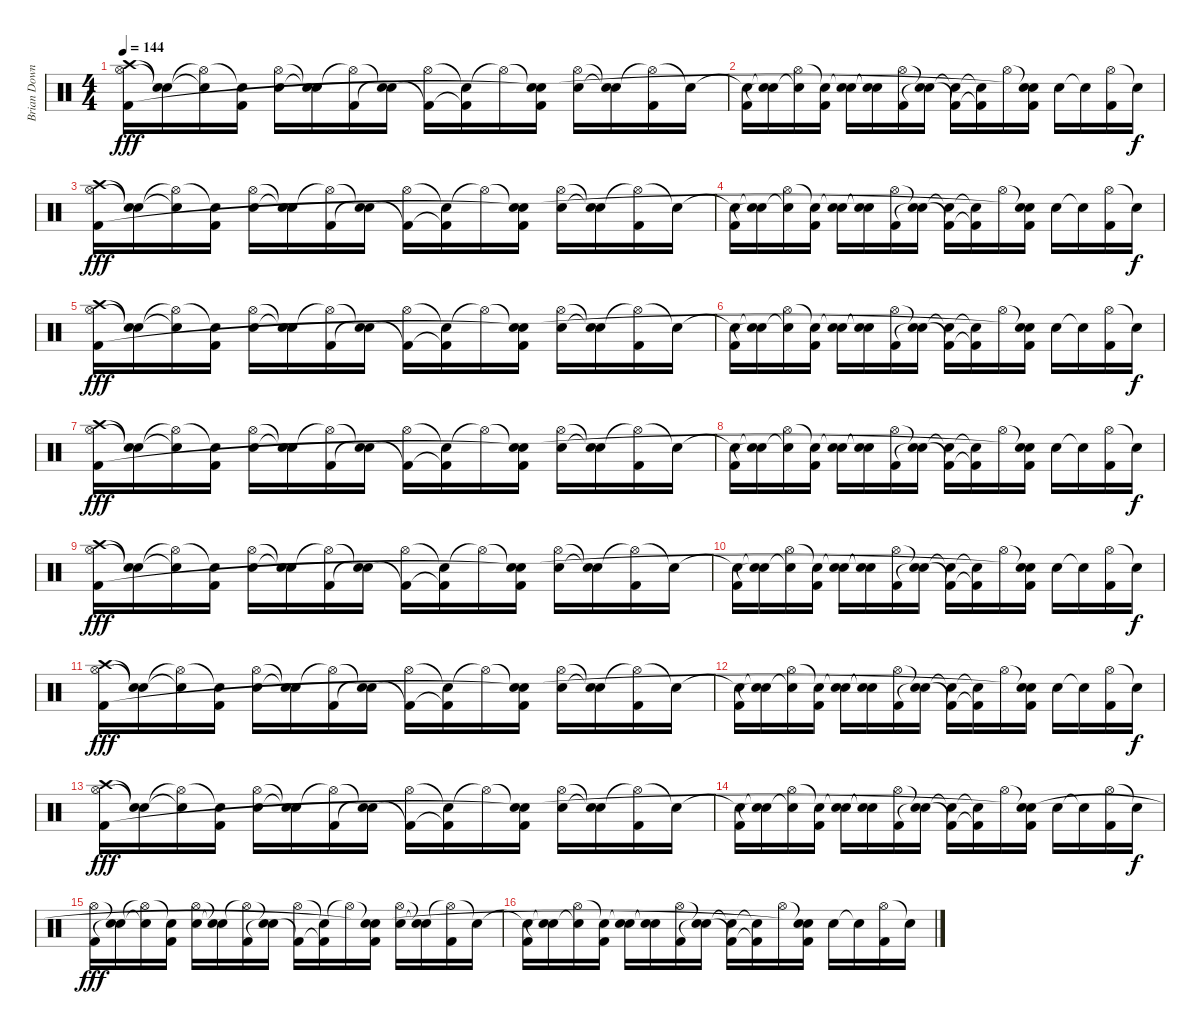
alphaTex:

\track ("Brian Downey" "Brian Down") {instrument percussion}
\staff {score}
\articulation defaults
\ts (4 4)
\tempo 144
\clef neutral
\ks c
("Crash high (hit)" "Hi-Hat (open)" "Kick (hit) 2").16{dy fff} ("Snare (hit)"{t} "Snare (hit)"{t}).16 ("Hi-Hat (open)"{t} "Snare (hit)"{t}).16 ("Snare (hit)"{t} "Kick (hit) 2").16 ("Hi-Hat (open)" "Electric Snare (hit)").16 ("Snare (hit)"{t} "Snare (hit)"{t}).16 ("Hi-Hat (open)"{t} "Kick (hit) 2").16 ("Snare (hit)"{t} "Snare (hit)"{t}).16 ("Hi-Hat (open)" "Kick (hit) 2"{t}).16 ("Snare (hit)"{t} "Kick (hit) 2"{t}).16 "Hi-Hat (open)"{t}.16 ("Snare (hit)"{t} "Kick (hit) 2" "Snare (hit)"{t}).16 ("Hi-Hat (open)" "Electric Snare (hit)").16 ("Snare (hit)"{t} "Snare (hit)"{t}).16 ("Hi-Hat (open)"{t} "Kick (hit) 2").16 "Snare (hit)"{t}.16 |
("Snare (hit)"{t} "Kick (hit) 2").16 ("Snare (hit)"{t} "Snare (hit)"{t}).16 ("Hi-Hat (open)" "Snare (hit)"{t}).16 ("Snare (hit)"{t} "Kick (hit) 2").16 ("Snare (hit)"{t} "Electric Snare (hit)").16 ("Snare (hit)"{t} "Snare (hit)"{t}).16 ("Hi-Hat (open)" "Kick (hit) 2").16 ("Snare (hit)"{t} "Snare (hit)"{t}).16 ("Snare (hit)"{t} "Kick (hit) 2"{t}).16 ("Snare (hit)"{t} "Kick (hit) 2"{t}).16 "Hi-Hat (open)".16 ("Snare (hit)"{t} "Kick (hit) 2" "Snare (hit)"{t}).16 "Electric Snare (hit)".16 "Snare (hit)"{t}.16 ("Hi-Hat (open)" "Kick (hit) 2").16 "Snare (hit)"{t}.16{dy f} |
("Crash high (hit)" "Hi-Hat (open)" "Kick (hit) 2").16{dy fff} ("Snare (hit)"{t} "Snare (hit)"{t}).16 ("Hi-Hat (open)"{t} "Snare (hit)"{t}).16 ("Snare (hit)"{t} "Kick (hit) 2").16 ("Hi-Hat (open)" "Electric Snare (hit)").16 ("Snare (hit)"{t} "Snare (hit)"{t}).16 ("Hi-Hat (open)"{t} "Kick (hit) 2").16 ("Snare (hit)"{t} "Snare (hit)"{t}).16 ("Hi-Hat (open)" "Kick (hit) 2"{t}).16 ("Snare (hit)"{t} "Kick (hit) 2"{t}).16 "Hi-Hat (open)"{t}.16 ("Snare (hit)"{t} "Kick (hit) 2" "Snare (hit)"{t}).16 ("Hi-Hat (open)" "Electric Snare (hit)").16 ("Snare (hit)"{t} "Snare (hit)"{t}).16 ("Hi-Hat (open)"{t} "Kick (hit) 2").16 "Snare (hit)"{t}.16 |
("Snare (hit)"{t} "Kick (hit) 2").16 ("Snare (hit)"{t} "Snare (hit)"{t}).16 ("Hi-Hat (open)" "Snare (hit)"{t}).16 ("Snare (hit)"{t} "Kick (hit) 2").16 ("Snare (hit)"{t} "Electric Snare (hit)").16 ("Snare (hit)"{t} "Snare (hit)"{t}).16 ("Hi-Hat (open)" "Kick (hit) 2").16 ("Snare (hit)"{t} "Snare (hit)"{t}).16 ("Snare (hit)"{t} "Kick (hit) 2"{t}).16 ("Snare (hit)"{t} "Kick (hit) 2"{t}).16 "Hi-Hat (open)".16 ("Snare (hit)"{t} "Kick (hit) 2" "Snare (hit)"{t}).16 "Electric Snare (hit)".16 "Snare (hit)"{t}.16 ("Hi-Hat (open)" "Kick (hit) 2").16 "Snare (hit)"{t}.16{dy f} |
("Crash high (hit)" "Hi-Hat (open)" "Kick (hit) 2").16{dy fff} ("Snare (hit)"{t} "Snare (hit)"{t}).16 ("Hi-Hat (open)"{t} "Snare (hit)"{t}).16 ("Snare (hit)"{t} "Kick (hit) 2").16 ("Hi-Hat (open)" "Electric Snare (hit)").16 ("Snare (hit)"{t} "Snare (hit)"{t}).16 ("Hi-Hat (open)"{t} "Kick (hit) 2").16 ("Snare (hit)"{t} "Snare (hit)"{t}).16 ("Hi-Hat (open)" "Kick (hit) 2"{t}).16 ("Snare (hit)"{t} "Kick (hit) 2"{t}).16 "Hi-Hat (open)"{t}.16 ("Snare (hit)"{t} "Kick (hit) 2" "Snare (hit)"{t}).16 ("Hi-Hat (open)" "Electric Snare (hit)").16 ("Snare (hit)"{t} "Snare (hit)"{t}).16 ("Hi-Hat (open)"{t} "Kick (hit) 2").16 "Snare (hit)"{t}.16 |
("Snare (hit)"{t} "Kick (hit) 2").16 ("Snare (hit)"{t} "Snare (hit)"{t}).16 ("Hi-Hat (open)" "Snare (hit)"{t}).16 ("Snare (hit)"{t} "Kick (hit) 2").16 ("Snare (hit)"{t} "Electric Snare (hit)").16 ("Snare (hit)"{t} "Snare (hit)"{t}).16 ("Hi-Hat (open)" "Kick (hit) 2").16 ("Snare (hit)"{t} "Snare (hit)"{t}).16 ("Snare (hit)"{t} "Kick (hit) 2"{t}).16 ("Snare (hit)"{t} "Kick (hit) 2"{t}).16 "Hi-Hat (open)".16 ("Snare (hit)"{t} "Kick (hit) 2" "Snare (hit)"{t}).16 "Electric Snare (hit)".16 "Snare (hit)"{t}.16 ("Hi-Hat (open)" "Kick (hit) 2").16 "Snare (hit)"{t}.16{dy f} |
("Crash high (hit)" "Hi-Hat (open)" "Kick (hit) 2").16{dy fff} ("Snare (hit)"{t} "Snare (hit)"{t}).16 ("Hi-Hat (open)"{t} "Snare (hit)"{t}).16 ("Snare (hit)"{t} "Kick (hit) 2").16 ("Hi-Hat (open)" "Electric Snare (hit)").16 ("Snare (hit)"{t} "Snare (hit)"{t}).16 ("Hi-Hat (open)"{t} "Kick (hit) 2").16 ("Snare (hit)"{t} "Snare (hit)"{t}).16 ("Hi-Hat (open)" "Kick (hit) 2"{t}).16 ("Snare (hit)"{t} "Kick (hit) 2"{t}).16 "Hi-Hat (open)"{t}.16 ("Snare (hit)"{t} "Kick (hit) 2" "Snare (hit)"{t}).16 ("Hi-Hat (open)" "Electric Snare (hit)").16 ("Snare (hit)"{t} "Snare (hit)"{t}).16 ("Hi-Hat (open)"{t} "Kick (hit) 2").16 "Snare (hit)"{t}.16 |
("Snare (hit)"{t} "Kick (hit) 2").16 ("Snare (hit)"{t} "Snare (hit)"{t}).16 ("Hi-Hat (open)" "Snare (hit)"{t}).16 ("Snare (hit)"{t} "Kick (hit) 2").16 ("Snare (hit)"{t} "Electric Snare (hit)").16 ("Snare (hit)"{t} "Snare (hit)"{t}).16 ("Hi-Hat (open)" "Kick (hit) 2").16 ("Snare (hit)"{t} "Snare (hit)"{t}).16 ("Snare (hit)"{t} "Kick (hit) 2"{t}).16 ("Snare (hit)"{t} "Kick (hit) 2"{t}).16 "Hi-Hat (open)".16 ("Snare (hit)"{t} "Kick (hit) 2" "Snare (hit)"{t}).16 "Electric Snare (hit)".16 "Snare (hit)"{t}.16 ("Hi-Hat (open)" "Kick (hit) 2").16 "Snare (hit)"{t}.16{dy f} |
("Crash high (hit)" "Hi-Hat (open)" "Kick (hit) 2").16{dy fff} ("Snare (hit)"{t} "Snare (hit)"{t}).16 ("Hi-Hat (open)"{t} "Snare (hit)"{t}).16 ("Snare (hit)"{t} "Kick (hit) 2").16 ("Hi-Hat (open)" "Electric Snare (hit)").16 ("Snare (hit)"{t} "Snare (hit)"{t}).16 ("Hi-Hat (open)"{t} "Kick (hit) 2").16 ("Snare (hit)"{t} "Snare (hit)"{t}).16 ("Hi-Hat (open)" "Kick (hit) 2"{t}).16 ("Snare (hit)"{t} "Kick (hit) 2"{t}).16 "Hi-Hat (open)"{t}.16 ("Snare (hit)"{t} "Kick (hit) 2" "Snare (hit)"{t}).16 ("Hi-Hat (open)" "Electric Snare (hit)").16 ("Snare (hit)"{t} "Snare (hit)"{t}).16 ("Hi-Hat (open)"{t} "Kick (hit) 2").16 "Snare (hit)"{t}.16 |
("Snare (hit)"{t} "Kick (hit) 2").16 ("Snare (hit)"{t} "Snare (hit)"{t}).16 ("Hi-Hat (open)" "Snare (hit)"{t}).16 ("Snare (hit)"{t} "Kick (hit) 2").16 ("Snare (hit)"{t} "Electric Snare (hit)").16 ("Snare (hit)"{t} "Snare (hit)"{t}).16 ("Hi-Hat (open)" "Kick (hit) 2").16 ("Snare (hit)"{t} "Snare (hit)"{t}).16 ("Snare (hit)"{t} "Kick (hit) 2"{t}).16 ("Snare (hit)"{t} "Kick (hit) 2"{t}).16 "Hi-Hat (open)".16 ("Snare (hit)"{t} "Kick (hit) 2" "Snare (hit)"{t}).16 "Electric Snare (hit)".16 "Snare (hit)"{t}.16 ("Hi-Hat (open)" "Kick (hit) 2").16 "Snare (hit)"{t}.16{dy f} |
("Crash high (hit)" "Hi-Hat (open)" "Kick (hit) 2").16{dy fff} ("Snare (hit)"{t} "Snare (hit)"{t}).16 ("Hi-Hat (open)"{t} "Snare (hit)"{t}).16 ("Snare (hit)"{t} "Kick (hit) 2").16 ("Hi-Hat (open)" "Electric Snare (hit)").16 ("Snare (hit)"{t} "Snare (hit)"{t}).16 ("Hi-Hat (open)"{t} "Kick (hit) 2").16 ("Snare (hit)"{t} "Snare (hit)"{t}).16 ("Hi-Hat (open)" "Kick (hit) 2"{t}).16 ("Snare (hit)"{t} "Kick (hit) 2"{t}).16 "Hi-Hat (open)"{t}.16 ("Snare (hit)"{t} "Kick (hit) 2" "Snare (hit)"{t}).16 ("Hi-Hat (open)" "Electric Snare (hit)").16 ("Snare (hit)"{t} "Snare (hit)"{t}).16 ("Hi-Hat (open)"{t} "Kick (hit) 2").16 "Snare (hit)"{t}.16 |
("Snare (hit)"{t} "Kick (hit) 2").16 ("Snare (hit)"{t} "Snare (hit)"{t}).16 ("Hi-Hat (open)" "Snare (hit)"{t}).16 ("Snare (hit)"{t} "Kick (hit) 2").16 ("Snare (hit)"{t} "Electric Snare (hit)").16 ("Snare (hit)"{t} "Snare (hit)"{t}).16 ("Hi-Hat (open)" "Kick (hit) 2").16 ("Snare (hit)"{t} "Snare (hit)"{t}).16 ("Snare (hit)"{t} "Kick (hit) 2"{t}).16 ("Snare (hit)"{t} "Kick (hit) 2"{t}).16 "Hi-Hat (open)".16 ("Snare (hit)"{t} "Kick (hit) 2" "Snare (hit)"{t}).16 "Electric Snare (hit)".16 "Snare (hit)"{t}.16 ("Hi-Hat (open)" "Kick (hit) 2").16 "Snare (hit)"{t}.16{dy f} |
("Crash high (hit)" "Hi-Hat (open)" "Kick (hit) 2").16{dy fff} ("Snare (hit)"{t} "Snare (hit)"{t}).16 ("Hi-Hat (open)"{t} "Snare (hit)"{t}).16 ("Snare (hit)"{t} "Kick (hit) 2").16 ("Hi-Hat (open)" "Electric Snare (hit)").16 ("Snare (hit)"{t} "Snare (hit)"{t}).16 ("Hi-Hat (open)"{t} "Kick (hit) 2").16 ("Snare (hit)"{t} "Snare (hit)"{t}).16 ("Hi-Hat (open)" "Kick (hit) 2"{t}).16 ("Snare (hit)"{t} "Kick (hit) 2"{t}).16 "Hi-Hat (open)"{t}.16 ("Snare (hit)"{t} "Kick (hit) 2" "Snare (hit)"{t}).16 ("Hi-Hat (open)" "Electric Snare (hit)").16 ("Snare (hit)"{t} "Snare (hit)"{t}).16 ("Hi-Hat (open)"{t} "Kick (hit) 2").16 "Snare (hit)"{t}.16 |
("Snare (hit)"{t} "Kick (hit) 2").16 ("Snare (hit)"{t} "Snare (hit)"{t}).16 ("Hi-Hat (open)" "Snare (hit)"{t}).16 ("Snare (hit)"{t} "Kick (hit) 2").16 ("Snare (hit)"{t} "Electric Snare (hit)").16 ("Snare (hit)"{t} "Snare (hit)"{t}).16 ("Hi-Hat (open)" "Kick (hit) 2").16 ("Snare (hit)"{t} "Snare (hit)"{t}).16 ("Snare (hit)"{t} "Kick (hit) 2"{t}).16 ("Snare (hit)"{t} "Kick (hit) 2"{t}).16 "Hi-Hat (open)".16 ("Snare (hit)"{t} "Kick (hit) 2" "Snare (hit)"{t}).16 "Electric Snare (hit)".16 "Snare (hit)"{t}.16 ("Hi-Hat (open)" "Kick (hit) 2").16 "Snare (hit)"{t}.16{dy f} |
("Hi-Hat (open)" "Kick (hit) 2").16{dy fff} ("Snare (hit)"{t} "Snare (hit)"{t}).16 ("Hi-Hat (open)"{t} "Snare (hit)"{t}).16 ("Snare (hit)"{t} "Kick (hit) 2").16 ("Hi-Hat (open)" "Electric Snare (hit)").16 ("Snare (hit)"{t} "Snare (hit)"{t}).16 ("Hi-Hat (open)"{t} "Kick (hit) 2").16 ("Snare (hit)"{t} "Snare (hit)"{t}).16 ("Hi-Hat (open)" "Kick (hit) 2"{t}).16 ("Snare (hit)"{t} "Kick (hit) 2"{t}).16 "Hi-Hat (open)"{t}.16 ("Snare (hit)"{t} "Kick (hit) 2" "Snare (hit)"{t}).16 ("Hi-Hat (open)" "Electric Snare (hit)").16 ("Snare (hit)"{t} "Snare (hit)"{t}).16 ("Hi-Hat (open)"{t} "Kick (hit) 2").16 "Snare (hit)"{t}.16 |
("Snare (hit)"{t} "Kick (hit) 2").16 ("Snare (hit)"{t} "Snare (hit)"{t}).16 ("Hi-Hat (open)" "Snare (hit)"{t}).16 ("Snare (hit)"{t} "Kick (hit) 2").16 ("Snare (hit)"{t} "Electric Snare (hit)").16 ("Snare (hit)"{t} "Snare (hit)"{t}).16 ("Hi-Hat (open)" "Kick (hit) 2").16 ("Snare (hit)"{t} "Snare (hit)"{t}).16 ("Snare (hit)"{t} "Kick (hit) 2"{t}).16 ("Snare (hit)"{t} "Kick (hit) 2"{t}).16 "Hi-Hat (open)".16 ("Snare (hit)"{t} "Kick (hit) 2" "Snare (hit)"{t}).16 "Electric Snare (hit)".16 "Snare (hit)"{t}.16 ("Hi-Hat (open)" "Kick (hit) 2").16 "Snare (hit)"{t}.16
